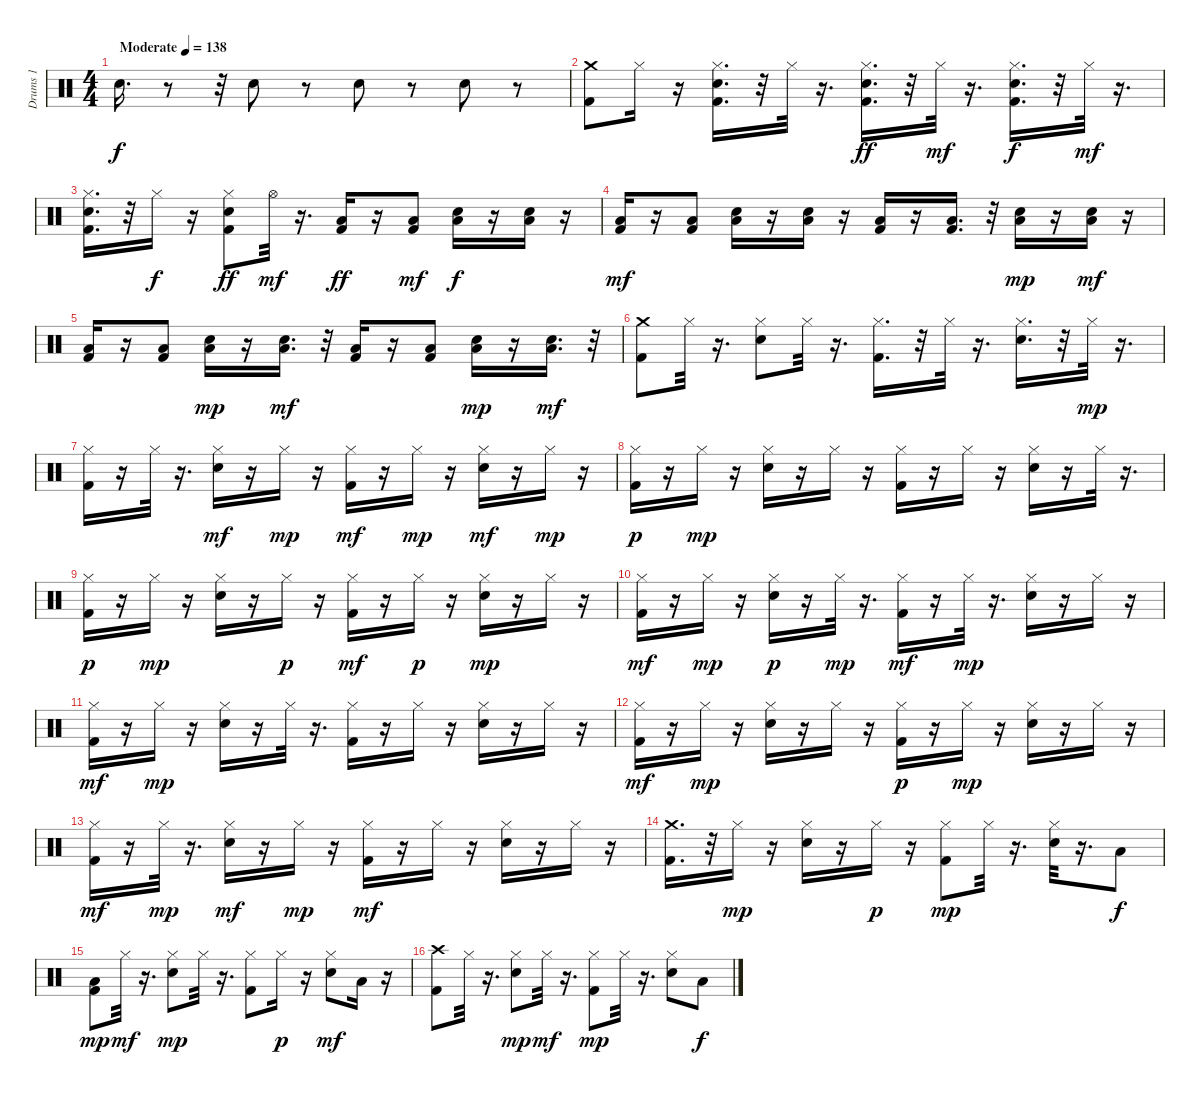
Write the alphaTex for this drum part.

\track ("Drums 1" "Drums 1") {instrument percussion}
\staff {score}
\articulation defaults
\ts (4 4)
\tempo (138 "Moderate")
\clef neutral
\ks c "Snare (hit) 2".16{d dy f}
r.8 r.32 "Snare (hit) 2".8 r.8 "Snare (hit) 2".8 r.8 "Snare (hit) 2".8 r.8 |
("Kick (hit) 2" "Crash medium (hit)").8 "Hi-Hat (closed)".16 r.16 ("Hi-Hat (closed)" "Snare (hit) 2" "Kick (hit) 2").16{d} r.32 "Hi-Hat (closed)".32 r.16{d} ("Hi-Hat (closed)" "Snare (hit) 2" "Kick (hit) 2").16{d dy ff} r.32 "Hi-Hat (closed)".32{dy mf} r.16{d} ("Hi-Hat (closed)" "Snare (hit) 2" "Kick (hit) 2").16{d dy f} r.32 "Hi-Hat (closed)".32{dy mf} r.16{d} |
("Hi-Hat (closed)" "Snare (hit) 2" "Kick (hit) 2").16{d} r.32 "Hi-Hat (closed)".16{dy f} r.16 ("Kick (hit) 2" "Snare (hit) 2" "Hi-Hat (closed)").8{dy ff} "Hi-Hat (open)".32{dy mf} r.16{d} ("Kick (hit) 2" "Low Floor Tom (hit)").16{dy ff} r.16 ("Kick (hit) 2" "Low Floor Tom (hit)").8{dy mf} ("Low Floor Tom (hit)" "Snare (hit) 2").16{dy f} r.16 ("Snare (hit) 2" "Low Floor Tom (hit)").16 r.16 |
("Low Floor Tom (hit)" "Kick (hit) 2").16{dy mf} r.16 ("Low Floor Tom (hit)" "Kick (hit) 2").8 ("Low Floor Tom (hit)" "Snare (hit) 2").16 r.16 ("Low Floor Tom (hit)" "Snare (hit) 2").16 r.16 ("Low Floor Tom (hit)" "Kick (hit) 2").16 r.16 ("Low Floor Tom (hit)" "Kick (hit) 2").16{d} r.32 ("Low Floor Tom (hit)" "Snare (hit) 2").16{dy mp} r.16 ("Low Floor Tom (hit)" "Snare (hit) 2").16{dy mf} r.16 |
("Low Floor Tom (hit)" "Kick (hit) 2").16 r.16 ("Low Floor Tom (hit)" "Kick (hit) 2").8 ("Snare (hit) 2" "Low Floor Tom (hit)").16{dy mp} r.16 ("Low Floor Tom (hit)" "Snare (hit) 2").16{d dy mf} r.32 ("Kick (hit) 2" "Low Floor Tom (hit)").16 r.16 ("Low Floor Tom (hit)" "Kick (hit) 2").8 ("Snare (hit) 2" "Low Floor Tom (hit)").16{dy mp} r.16 ("Low Floor Tom (hit)" "Snare (hit) 2").16{d dy mf} r.32 |
("Kick (hit) 2" "Crash medium (hit)").8 "Hi-Hat (closed)".32 r.16{d} ("Hi-Hat (closed)" "Snare (hit) 2").8 "Hi-Hat (closed)".32 r.16{d} ("Kick (hit) 2" "Hi-Hat (closed)").16{d} r.32 "Hi-Hat (closed)".32 r.16{d} ("Hi-Hat (closed)" "Snare (hit) 2").16{d} r.32 "Hi-Hat (closed)".32{dy mp} r.16{d} |
("Hi-Hat (closed)" "Kick (hit) 2").16 r.16 "Hi-Hat (closed)".32 r.16{d} ("Hi-Hat (closed)" "Snare (hit) 2").16{dy mf} r.16 "Hi-Hat (closed)".16{dy mp} r.16 ("Kick (hit) 2" "Hi-Hat (closed)").16{dy mf} r.16 "Hi-Hat (closed)".16{dy mp} r.16 ("Hi-Hat (closed)" "Snare (hit) 2").16{dy mf} r.16 "Hi-Hat (closed)".16{dy mp} r.16 |
("Hi-Hat (closed)" "Kick (hit) 2").16{dy p} r.16 "Hi-Hat (closed)".16{dy mp} r.16 ("Hi-Hat (closed)" "Snare (hit) 2").16 r.16 "Hi-Hat (closed)".16 r.16 ("Hi-Hat (closed)" "Kick (hit) 2").16 r.16 "Hi-Hat (closed)".16 r.16 ("Hi-Hat (closed)" "Snare (hit) 2").16 r.16 "Hi-Hat (closed)".32 r.16{d} |
("Hi-Hat (closed)" "Kick (hit) 2").16{dy p} r.16 "Hi-Hat (closed)".16{dy mp} r.16 ("Hi-Hat (closed)" "Snare (hit) 2").16 r.16 "Hi-Hat (closed)".16{dy p} r.16 ("Kick (hit) 2" "Hi-Hat (closed)").16{dy mf} r.16 "Hi-Hat (closed)".16{dy p} r.16 ("Hi-Hat (closed)" "Snare (hit) 2").16{dy mp} r.16 "Hi-Hat (closed)".16 r.16 |
("Kick (hit) 2" "Hi-Hat (closed)").16{dy mf} r.16 "Hi-Hat (closed)".16{dy mp} r.16 ("Hi-Hat (closed)" "Snare (hit) 2").16{dy p} r.16 "Hi-Hat (closed)".32{dy mp} r.16{d} ("Kick (hit) 2" "Hi-Hat (closed)").16{dy mf} r.16 "Hi-Hat (closed)".32{dy mp} r.16{d} ("Hi-Hat (closed)" "Snare (hit) 2").16 r.16 "Hi-Hat (closed)".16 r.16 |
("Kick (hit) 2" "Hi-Hat (closed)").16{dy mf} r.16 "Hi-Hat (closed)".16{dy mp} r.16 ("Hi-Hat (closed)" "Snare (hit) 2").16 r.16 "Hi-Hat (closed)".32 r.16{d} ("Hi-Hat (closed)" "Kick (hit) 2").16 r.16 "Hi-Hat (closed)".16 r.16 ("Hi-Hat (closed)" "Snare (hit) 2").16 r.16 "Hi-Hat (closed)".16 r.16 |
("Kick (hit) 2" "Hi-Hat (closed)").16{dy mf} r.16 "Hi-Hat (closed)".16{dy mp} r.16 ("Hi-Hat (closed)" "Snare (hit) 2").16 r.16 "Hi-Hat (closed)".16 r.16 ("Hi-Hat (closed)" "Kick (hit) 2").16{dy p} r.16 "Hi-Hat (closed)".16{dy mp} r.16 ("Hi-Hat (closed)" "Snare (hit) 2").16 r.16 "Hi-Hat (closed)".16 r.16 |
("Kick (hit) 2" "Hi-Hat (closed)").16{dy mf} r.16 "Hi-Hat (closed)".32{dy mp} r.16{d} ("Snare (hit) 2" "Hi-Hat (closed)").16{dy mf} r.16 "Hi-Hat (closed)".16{dy mp} r.16 ("Kick (hit) 2" "Hi-Hat (closed)").16{dy mf} r.16 "Hi-Hat (closed)".16 r.16 ("Snare (hit) 2" "Hi-Hat (closed)").16 r.16 "Hi-Hat (closed)".16 r.16 |
("Kick (hit) 2" "Crash medium (hit)").16{d} r.32 "Hi-Hat (closed)".16{dy mp} r.16 ("Snare (hit) 2" "Hi-Hat (closed)").16 r.16 "Hi-Hat (closed)".16{dy p} r.16 ("Hi-Hat (closed)" "Kick (hit) 2").8{dy mp} "Hi-Hat (closed)".32 r.16{d} ("Snare (hit) 2" "Hi-Hat (closed)").32 r.16{d} "Low Tom (hit)".8{dy f} |
("Low Floor Tom (hit)" "Kick (hit) 2").8{dy mp} "Hi-Hat (closed)".32{dy mf} r.16{d} ("Hi-Hat (closed)" "Snare (hit) 2").8{dy mp} "Hi-Hat (closed)".32 r.16{d} ("Kick (hit) 2" "Hi-Hat (closed)").8 "Hi-Hat (closed)".16{dy p} r.16 ("Hi-Hat (closed)" "Snare (hit) 2").8{dy mf} "Low Floor Tom (hit)".16 r.16 |
("Crash high (hit)" "Kick (hit) 2").8 "Hi-Hat (closed)".32 r.16{d} ("Hi-Hat (closed)" "Snare (hit) 2").8{dy mp} "Hi-Hat (closed)".32{dy mf} r.16{d} ("Hi-Hat (closed)" "Kick (hit) 2").8{dy mp} "Hi-Hat (closed)".32 r.16{d} ("Hi-Hat (closed)" "Snare (hit) 2").8 "Low Tom (hit)".8{dy f}
